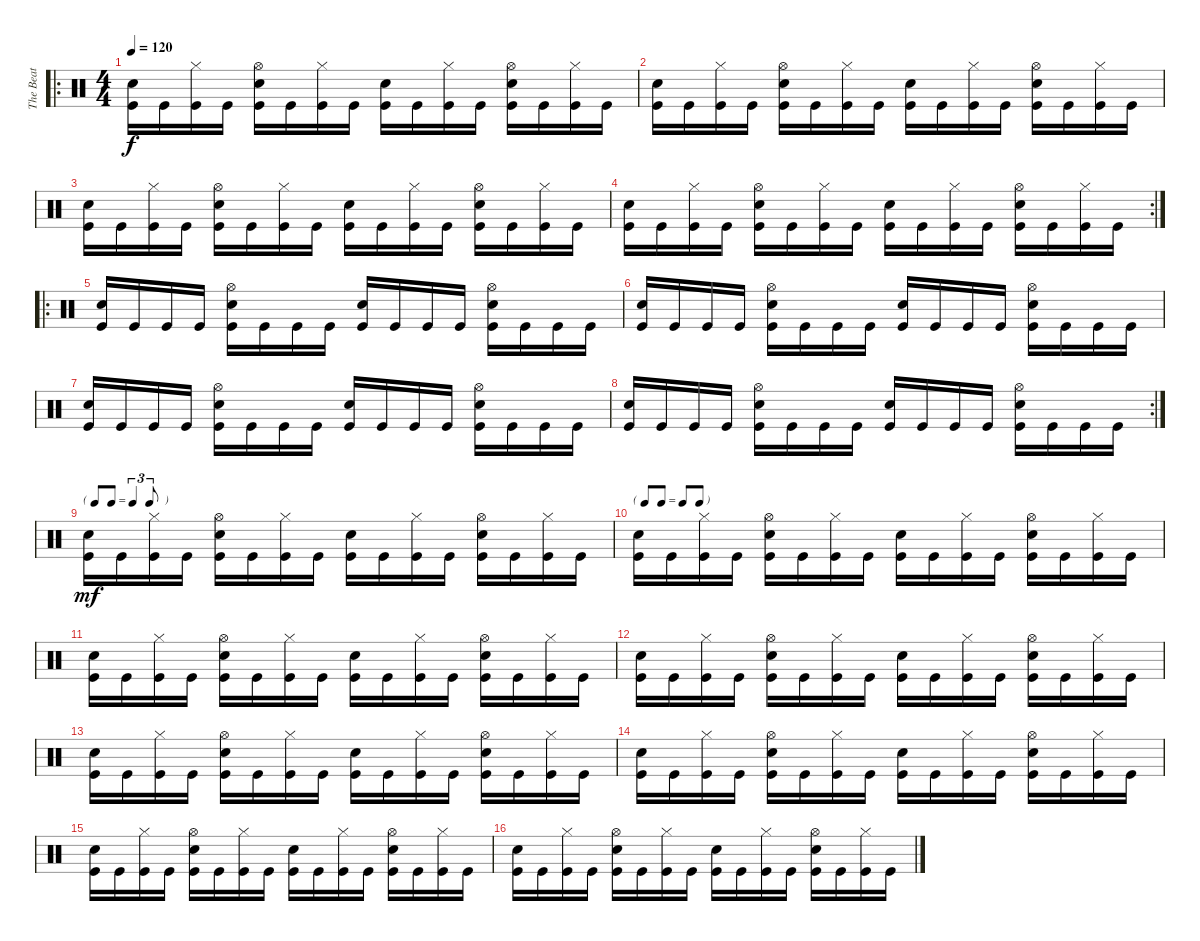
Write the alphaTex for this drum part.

\track ("The Beat" "The Beat") {instrument percussion}
\staff {score}
\articulation defaults
\ro
\ts (4 4)
\tempo 120
\clef neutral
\ks c
("Kick (hit)" "Electric Snare (hit)").16{dy f} "Kick (hit)".16 ("Kick (hit)" "Hi-Hat (closed)").16 "Kick (hit)".16 ("Kick (hit)" "Hi-Hat (open)" "Electric Snare (hit)").16 "Kick (hit)".16 ("Kick (hit)" "Hi-Hat (closed)").16 "Kick (hit)".16 ("Kick (hit)" "Electric Snare (hit)").16 "Kick (hit)".16 ("Kick (hit)" "Hi-Hat (closed)").16 "Kick (hit)".16 ("Kick (hit)" "Hi-Hat (open)" "Electric Snare (hit)").16 "Kick (hit)".16 ("Kick (hit)" "Hi-Hat (closed)").16 "Kick (hit)".16 |
("Kick (hit)" "Electric Snare (hit)").16 "Kick (hit)".16 ("Kick (hit)" "Hi-Hat (closed)").16 "Kick (hit)".16 ("Kick (hit)" "Hi-Hat (open)" "Electric Snare (hit)").16 "Kick (hit)".16 ("Kick (hit)" "Hi-Hat (closed)").16 "Kick (hit)".16 ("Kick (hit)" "Electric Snare (hit)").16 "Kick (hit)".16 ("Kick (hit)" "Hi-Hat (closed)").16 "Kick (hit)".16 ("Kick (hit)" "Hi-Hat (open)" "Electric Snare (hit)").16 "Kick (hit)".16 ("Kick (hit)" "Hi-Hat (closed)").16 "Kick (hit)".16 |
("Kick (hit)" "Electric Snare (hit)").16 "Kick (hit)".16 ("Kick (hit)" "Hi-Hat (closed)").16 "Kick (hit)".16 ("Kick (hit)" "Hi-Hat (open)" "Electric Snare (hit)").16 "Kick (hit)".16 ("Kick (hit)" "Hi-Hat (closed)").16 "Kick (hit)".16 ("Kick (hit)" "Electric Snare (hit)").16 "Kick (hit)".16 ("Kick (hit)" "Hi-Hat (closed)").16 "Kick (hit)".16 ("Kick (hit)" "Hi-Hat (open)" "Electric Snare (hit)").16 "Kick (hit)".16 ("Kick (hit)" "Hi-Hat (closed)").16 "Kick (hit)".16 |
\rc 2
("Kick (hit)" "Electric Snare (hit)").16 "Kick (hit)".16 ("Kick (hit)" "Hi-Hat (closed)").16 "Kick (hit)".16 ("Kick (hit)" "Hi-Hat (open)" "Electric Snare (hit)").16 "Kick (hit)".16 ("Kick (hit)" "Hi-Hat (closed)").16 "Kick (hit)".16 ("Kick (hit)" "Electric Snare (hit)").16 "Kick (hit)".16 ("Kick (hit)" "Hi-Hat (closed)").16 "Kick (hit)".16 ("Kick (hit)" "Hi-Hat (open)" "Electric Snare (hit)").16 "Kick (hit)".16 ("Kick (hit)" "Hi-Hat (closed)").16 "Kick (hit)".16 |
\ro
("Kick (hit)" "Electric Snare (hit)").16 "Kick (hit)".16 "Kick (hit)".16 "Kick (hit)".16 ("Kick (hit)" "Hi-Hat (open)" "Electric Snare (hit)").16 "Kick (hit)".16 "Kick (hit)".16 "Kick (hit)".16 ("Kick (hit)" "Electric Snare (hit)").16 "Kick (hit)".16 "Kick (hit)".16 "Kick (hit)".16 ("Kick (hit)" "Hi-Hat (open)" "Electric Snare (hit)").16 "Kick (hit)".16 "Kick (hit)".16 "Kick (hit)".16 |
("Kick (hit)" "Electric Snare (hit)").16 "Kick (hit)".16 "Kick (hit)".16 "Kick (hit)".16 ("Kick (hit)" "Hi-Hat (open)" "Electric Snare (hit)").16 "Kick (hit)".16 "Kick (hit)".16 "Kick (hit)".16 ("Kick (hit)" "Electric Snare (hit)").16 "Kick (hit)".16 "Kick (hit)".16 "Kick (hit)".16 ("Kick (hit)" "Hi-Hat (open)" "Electric Snare (hit)").16 "Kick (hit)".16 "Kick (hit)".16 "Kick (hit)".16 |
("Kick (hit)" "Electric Snare (hit)").16 "Kick (hit)".16 "Kick (hit)".16 "Kick (hit)".16 ("Kick (hit)" "Hi-Hat (open)" "Electric Snare (hit)").16 "Kick (hit)".16 "Kick (hit)".16 "Kick (hit)".16 ("Kick (hit)" "Electric Snare (hit)").16 "Kick (hit)".16 "Kick (hit)".16 "Kick (hit)".16 ("Kick (hit)" "Hi-Hat (open)" "Electric Snare (hit)").16 "Kick (hit)".16 "Kick (hit)".16 "Kick (hit)".16 |
\rc 2
("Kick (hit)" "Electric Snare (hit)").16 "Kick (hit)".16 "Kick (hit)".16 "Kick (hit)".16 ("Kick (hit)" "Hi-Hat (open)" "Electric Snare (hit)").16 "Kick (hit)".16 "Kick (hit)".16 "Kick (hit)".16 ("Kick (hit)" "Electric Snare (hit)").16 "Kick (hit)".16 "Kick (hit)".16 "Kick (hit)".16 ("Kick (hit)" "Hi-Hat (open)" "Electric Snare (hit)").16 "Kick (hit)".16 "Kick (hit)".16 "Kick (hit)".16 |
\tf triplet8th
("Kick (hit)" "Electric Snare (hit)").16{dy mf} "Kick (hit)".16 ("Kick (hit)" "Hi-Hat (closed)").16 "Kick (hit)".16 ("Kick (hit)" "Hi-Hat (open)" "Electric Snare (hit)").16 "Kick (hit)".16 ("Kick (hit)" "Hi-Hat (closed)").16 "Kick (hit)".16 ("Kick (hit)" "Electric Snare (hit)").16 "Kick (hit)".16 ("Kick (hit)" "Hi-Hat (closed)").16 "Kick (hit)".16 ("Kick (hit)" "Hi-Hat (open)" "Electric Snare (hit)").16 "Kick (hit)".16 ("Kick (hit)" "Hi-Hat (closed)").16 "Kick (hit)".16 |
\tf none
("Kick (hit)" "Electric Snare (hit)").16 "Kick (hit)".16 ("Kick (hit)" "Hi-Hat (closed)").16 "Kick (hit)".16 ("Kick (hit)" "Hi-Hat (open)" "Electric Snare (hit)").16 "Kick (hit)".16 ("Kick (hit)" "Hi-Hat (closed)").16 "Kick (hit)".16 ("Kick (hit)" "Electric Snare (hit)").16 "Kick (hit)".16 ("Kick (hit)" "Hi-Hat (closed)").16 "Kick (hit)".16 ("Kick (hit)" "Hi-Hat (open)" "Electric Snare (hit)").16 "Kick (hit)".16 ("Kick (hit)" "Hi-Hat (closed)").16 "Kick (hit)".16 |
("Kick (hit)" "Electric Snare (hit)").16 "Kick (hit)".16 ("Kick (hit)" "Hi-Hat (closed)").16 "Kick (hit)".16 ("Kick (hit)" "Hi-Hat (open)" "Electric Snare (hit)").16 "Kick (hit)".16 ("Kick (hit)" "Hi-Hat (closed)").16 "Kick (hit)".16 ("Kick (hit)" "Electric Snare (hit)").16 "Kick (hit)".16 ("Kick (hit)" "Hi-Hat (closed)").16 "Kick (hit)".16 ("Kick (hit)" "Hi-Hat (open)" "Electric Snare (hit)").16 "Kick (hit)".16 ("Kick (hit)" "Hi-Hat (closed)").16 "Kick (hit)".16 |
("Kick (hit)" "Electric Snare (hit)").16 "Kick (hit)".16 ("Kick (hit)" "Hi-Hat (closed)").16 "Kick (hit)".16 ("Kick (hit)" "Hi-Hat (open)" "Electric Snare (hit)").16 "Kick (hit)".16 ("Kick (hit)" "Hi-Hat (closed)").16 "Kick (hit)".16 ("Kick (hit)" "Electric Snare (hit)").16 "Kick (hit)".16 ("Kick (hit)" "Hi-Hat (closed)").16 "Kick (hit)".16 ("Kick (hit)" "Hi-Hat (open)" "Electric Snare (hit)").16 "Kick (hit)".16 ("Kick (hit)" "Hi-Hat (closed)").16 "Kick (hit)".16 |
("Kick (hit)" "Electric Snare (hit)").16 "Kick (hit)".16 ("Kick (hit)" "Hi-Hat (closed)").16 "Kick (hit)".16 ("Kick (hit)" "Hi-Hat (open)" "Electric Snare (hit)").16 "Kick (hit)".16 ("Kick (hit)" "Hi-Hat (closed)").16 "Kick (hit)".16 ("Kick (hit)" "Electric Snare (hit)").16 "Kick (hit)".16 ("Kick (hit)" "Hi-Hat (closed)").16 "Kick (hit)".16 ("Kick (hit)" "Hi-Hat (open)" "Electric Snare (hit)").16 "Kick (hit)".16 ("Kick (hit)" "Hi-Hat (closed)").16 "Kick (hit)".16 |
("Kick (hit)" "Electric Snare (hit)").16 "Kick (hit)".16 ("Kick (hit)" "Hi-Hat (closed)").16 "Kick (hit)".16 ("Kick (hit)" "Hi-Hat (open)" "Electric Snare (hit)").16 "Kick (hit)".16 ("Kick (hit)" "Hi-Hat (closed)").16 "Kick (hit)".16 ("Kick (hit)" "Electric Snare (hit)").16 "Kick (hit)".16 ("Kick (hit)" "Hi-Hat (closed)").16 "Kick (hit)".16 ("Kick (hit)" "Hi-Hat (open)" "Electric Snare (hit)").16 "Kick (hit)".16 ("Kick (hit)" "Hi-Hat (closed)").16 "Kick (hit)".16 |
("Kick (hit)" "Electric Snare (hit)").16 "Kick (hit)".16 ("Kick (hit)" "Hi-Hat (closed)").16 "Kick (hit)".16 ("Kick (hit)" "Hi-Hat (open)" "Electric Snare (hit)").16 "Kick (hit)".16 ("Kick (hit)" "Hi-Hat (closed)").16 "Kick (hit)".16 ("Kick (hit)" "Electric Snare (hit)").16 "Kick (hit)".16 ("Kick (hit)" "Hi-Hat (closed)").16 "Kick (hit)".16 ("Kick (hit)" "Hi-Hat (open)" "Electric Snare (hit)").16 "Kick (hit)".16 ("Kick (hit)" "Hi-Hat (closed)").16 "Kick (hit)".16 |
("Kick (hit)" "Electric Snare (hit)").16 "Kick (hit)".16 ("Kick (hit)" "Hi-Hat (closed)").16 "Kick (hit)".16 ("Kick (hit)" "Hi-Hat (open)" "Electric Snare (hit)").16 "Kick (hit)".16 ("Kick (hit)" "Hi-Hat (closed)").16 "Kick (hit)".16 ("Kick (hit)" "Electric Snare (hit)").16 "Kick (hit)".16 ("Kick (hit)" "Hi-Hat (closed)").16 "Kick (hit)".16 ("Kick (hit)" "Hi-Hat (open)" "Electric Snare (hit)").16 "Kick (hit)".16 ("Kick (hit)" "Hi-Hat (closed)").16 "Kick (hit)".16
